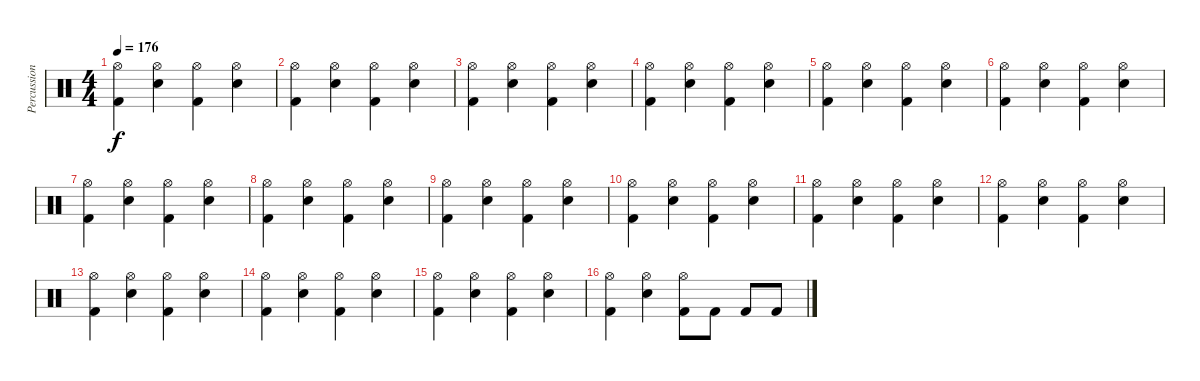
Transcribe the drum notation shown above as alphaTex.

\track ("Percussion" "Percussion") {instrument percussion}
\staff {score}
\articulation defaults
\ts (4 4)
\tempo 176
\clef neutral
\ks c
("Hi-Hat (open)" "Kick (hit) 2").4{dy f} ("Hi-Hat (open)" "Snare (hit) 2").4 ("Hi-Hat (open)" "Kick (hit) 2").4 ("Hi-Hat (open)" "Snare (hit) 2").4 |
("Hi-Hat (open)" "Kick (hit) 2").4 ("Hi-Hat (open)" "Snare (hit) 2").4 ("Hi-Hat (open)" "Kick (hit) 2").4 ("Hi-Hat (open)" "Snare (hit) 2").4 |
("Hi-Hat (open)" "Kick (hit) 2").4 ("Hi-Hat (open)" "Snare (hit) 2").4 ("Hi-Hat (open)" "Kick (hit) 2").4 ("Hi-Hat (open)" "Snare (hit) 2").4 |
("Hi-Hat (open)" "Kick (hit) 2").4 ("Hi-Hat (open)" "Snare (hit) 2").4 ("Hi-Hat (open)" "Kick (hit) 2").4 ("Hi-Hat (open)" "Snare (hit) 2").4 |
("Hi-Hat (open)" "Kick (hit) 2").4 ("Hi-Hat (open)" "Snare (hit) 2").4 ("Hi-Hat (open)" "Kick (hit) 2").4 ("Hi-Hat (open)" "Snare (hit) 2").4 |
("Hi-Hat (open)" "Kick (hit) 2").4 ("Hi-Hat (open)" "Snare (hit) 2").4 ("Hi-Hat (open)" "Kick (hit) 2").4 ("Hi-Hat (open)" "Snare (hit) 2").4 |
("Hi-Hat (open)" "Kick (hit) 2").4 ("Hi-Hat (open)" "Snare (hit) 2").4 ("Hi-Hat (open)" "Kick (hit) 2").4 ("Hi-Hat (open)" "Snare (hit) 2").4 |
("Hi-Hat (open)" "Kick (hit) 2").4 ("Hi-Hat (open)" "Snare (hit) 2").4 ("Hi-Hat (open)" "Kick (hit) 2").4 ("Hi-Hat (open)" "Snare (hit) 2").4 |
("Hi-Hat (open)" "Kick (hit) 2").4 ("Hi-Hat (open)" "Snare (hit) 2").4 ("Hi-Hat (open)" "Kick (hit) 2").4 ("Hi-Hat (open)" "Snare (hit) 2").4 |
("Hi-Hat (open)" "Kick (hit) 2").4 ("Hi-Hat (open)" "Snare (hit) 2").4 ("Hi-Hat (open)" "Kick (hit) 2").4 ("Hi-Hat (open)" "Snare (hit) 2").4 |
("Hi-Hat (open)" "Kick (hit) 2").4 ("Hi-Hat (open)" "Snare (hit) 2").4 ("Hi-Hat (open)" "Kick (hit) 2").4 ("Hi-Hat (open)" "Snare (hit) 2").4 |
("Hi-Hat (open)" "Kick (hit) 2").4 ("Hi-Hat (open)" "Snare (hit) 2").4 ("Hi-Hat (open)" "Kick (hit) 2").4 ("Hi-Hat (open)" "Snare (hit) 2").4 |
("Hi-Hat (open)" "Kick (hit) 2").4 ("Hi-Hat (open)" "Snare (hit) 2").4 ("Hi-Hat (open)" "Kick (hit) 2").4 ("Hi-Hat (open)" "Snare (hit) 2").4 |
("Hi-Hat (open)" "Kick (hit) 2").4 ("Hi-Hat (open)" "Snare (hit) 2").4 ("Hi-Hat (open)" "Kick (hit) 2").4 ("Hi-Hat (open)" "Snare (hit) 2").4 |
("Hi-Hat (open)" "Kick (hit) 2").4 ("Hi-Hat (open)" "Snare (hit) 2").4 ("Hi-Hat (open)" "Kick (hit) 2").4 ("Hi-Hat (open)" "Snare (hit) 2").4 |
("Hi-Hat (open)" "Kick (hit) 2").4 ("Hi-Hat (open)" "Snare (hit) 2").4 ("Hi-Hat (open)" "Kick (hit) 2").8 "Kick (hit) 2".8 "Kick (hit) 2".8 "Kick (hit) 2".8
